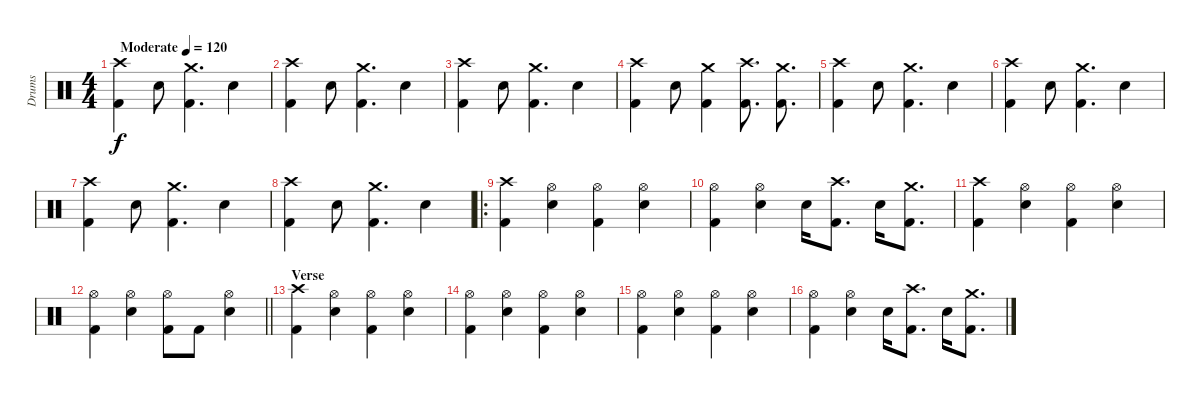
\track ("Drums" "Drums") {instrument percussion}
\staff {score}
\articulation defaults
\ts (4 4)
\tempo (120 "Moderate")
\clef neutral
\ks c
("Kick (hit) 2" "Crash high (hit)").4{dy f} "Snare (hit) 2".8 ("Kick (hit) 2" "Crash medium (hit)").4{d} "Snare (hit) 2".4 |
("Kick (hit) 2" "Crash high (hit)").4 "Snare (hit) 2".8 ("Kick (hit) 2" "Crash medium (hit)").4{d} "Snare (hit) 2".4 |
("Kick (hit) 2" "Crash high (hit)").4 "Snare (hit) 2".8 ("Kick (hit) 2" "Crash medium (hit)").4{d} "Snare (hit) 2".4 |
("Kick (hit) 2" "Crash high (hit)").4 "Snare (hit) 2".8 ("Kick (hit) 2" "Crash medium (hit)").4 ("Kick (hit) 2" "Crash high (hit)").8{d} ("Kick (hit) 2" "Crash medium (hit)").8{d} |
("Kick (hit) 2" "Crash high (hit)").4 "Snare (hit) 2".8 ("Kick (hit) 2" "Crash medium (hit)").4{d} "Snare (hit) 2".4 |
("Kick (hit) 2" "Crash high (hit)").4 "Snare (hit) 2".8 ("Kick (hit) 2" "Crash medium (hit)").4{d} "Snare (hit) 2".4 |
("Kick (hit) 2" "Crash high (hit)").4 "Snare (hit) 2".8 ("Kick (hit) 2" "Crash medium (hit)").4{d} "Snare (hit) 2".4 |
("Kick (hit) 2" "Crash high (hit)").4 "Snare (hit) 2".8 ("Kick (hit) 2" "Crash medium (hit)").4{d} "Snare (hit) 2".4 |
\ro
("Kick (hit) 2" "Crash high (hit)").4 ("Snare (hit) 2" "Hi-Hat (open)").4 ("Kick (hit) 2" "Hi-Hat (open)").4 ("Snare (hit) 2" "Hi-Hat (open)").4 |
("Kick (hit) 2" "Hi-Hat (open)").4 ("Snare (hit) 2" "Hi-Hat (open)").4 "Snare (hit) 2".16 ("Kick (hit) 2" "Crash high (hit)").8{d} "Snare (hit) 2".16 ("Kick (hit) 2" "Crash medium (hit)").8{d} |
("Kick (hit) 2" "Crash high (hit)").4 ("Snare (hit) 2" "Hi-Hat (open)").4 ("Kick (hit) 2" "Hi-Hat (open)").4 ("Snare (hit) 2" "Hi-Hat (open)").4 |
\barLineRight lightlight
("Kick (hit) 2" "Hi-Hat (open)").4 ("Snare (hit) 2" "Hi-Hat (open)").4 ("Kick (hit) 2" "Hi-Hat (open)").8 "Kick (hit) 2".8 ("Snare (hit) 2" "Hi-Hat (open)").4 |
\section ("" "Verse")
("Kick (hit) 2" "Crash high (hit)").4 ("Snare (hit) 2" "Hi-Hat (open)").4 ("Kick (hit) 2" "Hi-Hat (open)").4 ("Snare (hit) 2" "Hi-Hat (open)").4 |
("Kick (hit) 2" "Hi-Hat (open)").4 ("Snare (hit) 2" "Hi-Hat (open)").4 ("Kick (hit) 2" "Hi-Hat (open)").4 ("Snare (hit) 2" "Hi-Hat (open)").4 |
("Kick (hit) 2" "Hi-Hat (open)").4 ("Snare (hit) 2" "Hi-Hat (open)").4 ("Kick (hit) 2" "Hi-Hat (open)").4 ("Snare (hit) 2" "Hi-Hat (open)").4 |
("Kick (hit) 2" "Hi-Hat (open)").4 ("Snare (hit) 2" "Hi-Hat (open)").4 "Snare (hit) 2".16 ("Kick (hit) 2" "Crash high (hit)").8{d} "Snare (hit) 2".16 ("Kick (hit) 2" "Crash medium (hit)").8{d}
